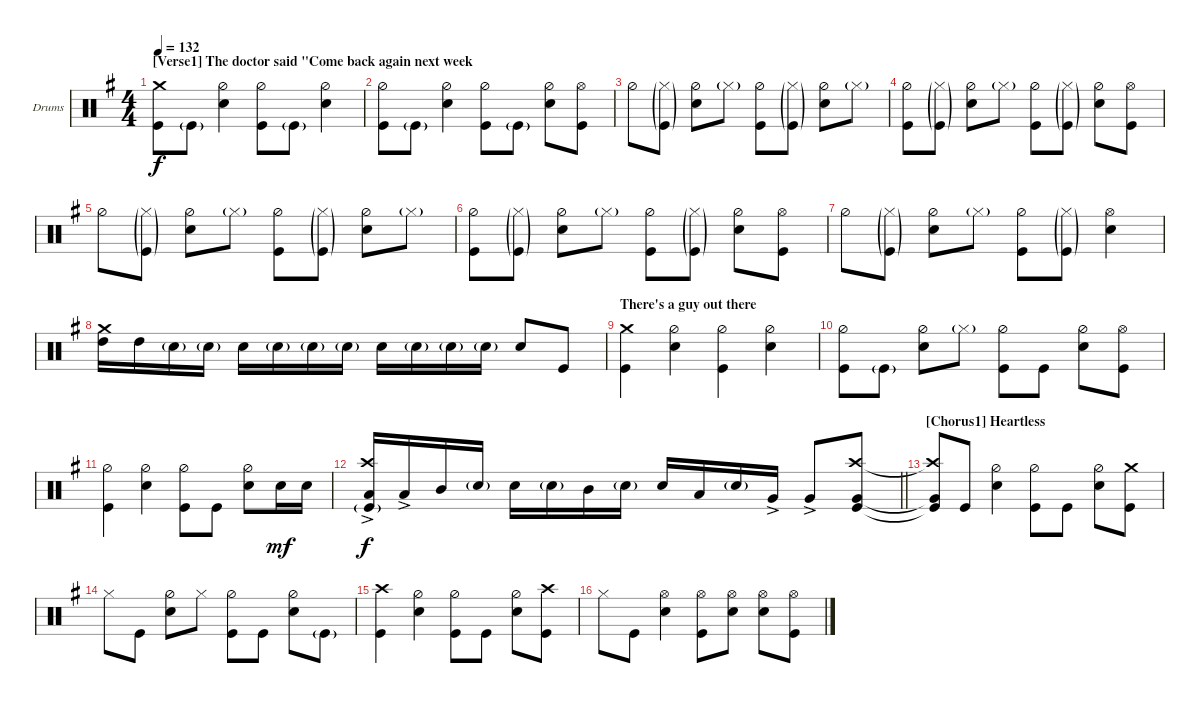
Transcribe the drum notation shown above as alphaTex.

\bracketExtendMode groupsimilarinstruments
\firstSystemTrackNameOrientation horizontal
\otherSystemsTrackNameOrientation horizontal
\track ("Drumkit" "Drums") {instrument percussion}
\staff {score}
\articulation defaults
\ts (4 4)
\section ("" "[Verse1] The doctor said \"Come back again next week")
\tempo 132
\clef neutral
\scale
0.333333
\ks g
("Kick (hit)" "Crash medium (hit)").8{dy f} "Kick (hit)"{g}.8 ("Hi-Hat (half)" "Snare (hit) 2").4 ("Hi-Hat (half)" "Kick (hit)").8 "Kick (hit)"{g}.8 ("Hi-Hat (half)" "Snare (hit) 2").4 |
\scale
0.333333 ("Hi-Hat (half)" "Kick (hit)").8 "Kick (hit)"{g}.8 ("Hi-Hat (half)" "Snare (hit) 2").4 ("Hi-Hat (half)" "Kick (hit)").8 "Kick (hit)"{g}.8 ("Hi-Hat (half)" "Snare (hit) 2").8 ("Kick (hit)" "Hi-Hat (open)").8 |
\scale
0.333333 "Hi-Hat (half)".8 ("Kick (hit)"{g} "Hi-Hat (closed)"{g}).8 ("Hi-Hat (half)" "Snare (hit) 2").8 "Hi-Hat (closed)"{g}.8 ("Hi-Hat (half)" "Kick (hit)").8 ("Kick (hit)"{g} "Hi-Hat (closed)"{g}).8 ("Hi-Hat (half)" "Snare (hit) 2").8 "Hi-Hat (closed)"{g}.8 |
\scale
0.333333 ("Hi-Hat (half)" "Kick (hit)").8 ("Kick (hit)"{g} "Hi-Hat (closed)"{g}).8 ("Hi-Hat (half)" "Snare (hit) 2").8 "Hi-Hat (closed)"{g}.8 ("Hi-Hat (half)" "Kick (hit)").8 ("Kick (hit)"{g} "Hi-Hat (closed)"{g}).8 ("Hi-Hat (half)" "Snare (hit) 2").8 ("Kick (hit)" "Hi-Hat (open)").8 |
\scale
0.333333 "Hi-Hat (half)".8 ("Kick (hit)"{g} "Hi-Hat (closed)"{g}).8 ("Hi-Hat (half)" "Snare (hit) 2").8 "Hi-Hat (closed)"{g}.8 ("Hi-Hat (half)" "Kick (hit)").8 ("Kick (hit)"{g} "Hi-Hat (closed)"{g}).8 ("Hi-Hat (half)" "Snare (hit) 2").8 "Hi-Hat (closed)"{g}.8 |
\scale
0.333333 ("Hi-Hat (half)" "Kick (hit)").8 ("Kick (hit)"{g} "Hi-Hat (closed)"{g}).8 ("Hi-Hat (half)" "Snare (hit) 2").8 "Hi-Hat (closed)"{g}.8 ("Hi-Hat (half)" "Kick (hit)").8 ("Kick (hit)"{g} "Hi-Hat (closed)"{g}).8 ("Hi-Hat (half)" "Snare (hit) 2").8 ("Kick (hit)" "Hi-Hat (open)").8 |
\scale
0.333333 "Hi-Hat (half)".8 ("Kick (hit)"{g} "Hi-Hat (closed)"{g}).8 ("Hi-Hat (half)" "Snare (hit) 2").8 "Hi-Hat (closed)"{g}.8 ("Hi-Hat (half)" "Kick (hit)").8 ("Kick (hit)"{g} "Hi-Hat (closed)"{g}).8 ("Hi-Hat (open)" "Snare (hit) 2").4 |
\scale
0.333333 ("High Tom (hit)" "Crash medium (hit)").16 "High Tom (hit)".16 "Snare (hit) 2"{g}.16 "Snare (hit) 2"{g}.16 "Snare (hit) 2".16 "Snare (hit) 2"{g}.16 "Snare (hit) 2"{g}.16 "Snare (hit) 2"{g}.16 "Snare (hit) 2".16 "Snare (hit) 2"{g}.16 "Snare (hit) 2"{g}.16 "Snare (hit) 2"{g}.16 "Snare (hit) 2".8 "Kick (hit)".8 |
\section ("" "There's a guy out there")
\scale
0.333333 ("Kick (hit)" "Crash medium (hit)").4 ("Hi-Hat (half)" "Snare (hit) 2").4 ("Hi-Hat (half)" "Kick (hit)").4 ("Hi-Hat (half)" "Snare (hit) 2").4 |
\scale
0.333333 ("Hi-Hat (half)" "Kick (hit)").8 "Kick (hit)"{g}.8 ("Hi-Hat (half)" "Snare (hit) 2").8 "Hi-Hat (closed)"{g}.8 ("Hi-Hat (half)" "Kick (hit)").8 "Kick (hit)".8 ("Hi-Hat (half)" "Snare (hit) 2").8 ("Kick (hit)" "Hi-Hat (open)").8 |
\scale
0.333333 ("Hi-Hat (half)" "Kick (hit)").4 ("Hi-Hat (half)" "Snare (hit) 2").4 ("Hi-Hat (half)" "Kick (hit)").8 "Kick (hit)".8 ("Hi-Hat (half)" "Snare (hit) 2").8 "Snare (hit) 2".16{dy mf} "Snare (hit) 2".16 |
\scale
0.333333
\barLineRight lightlight
("Kick (hit)"{g} "Crash high (hit)" "Low Tom (hit)"{ac}).16{dy f} "Low Tom (hit)"{ac}.16 "Mid Tom (hit)".16 "Snare (hit) 2"{g}.16 "Snare (hit) 2".16 "Snare (hit) 2"{g}.16 "Mid Tom (hit)".16 "Snare (hit) 2"{g}.16 "Snare (hit) 2".16 "Low Tom (hit)".16 "Snare (hit) 2"{g}.16 "Very Low Tom (hit)"{ac}.16 "Very Low Tom (hit)"{ac}.8 ("Kick (hit)" "Crash high (hit)" "Very Low Tom (hit)").8 |
\section ("" "[Chorus1] Heartless")
\scale
0.333333 ("Kick (hit)"{t} "Crash high (hit)"{t} "Very Low Tom (hit)"{t}).8 "Kick (hit)".8 ("Hi-Hat (half)" "Snare (hit) 2").4 ("Hi-Hat (half)" "Kick (hit)").8 "Kick (hit)".8 ("Hi-Hat (half)" "Snare (hit) 2").8 ("Kick (hit)" "Crash medium (hit)").8 |
\scale
0.333333 "Hi-Hat (closed)".8 "Kick (hit)".8 ("Hi-Hat (half)" "Snare (hit) 2").8 "Hi-Hat (closed)".8 ("Hi-Hat (half)" "Kick (hit)").8 "Kick (hit)".8 ("Hi-Hat (half)" "Snare (hit) 2").8 "Kick (hit)"{g}.8 |
\scale
0.333333 ("Kick (hit)" "Crash high (hit)").4 ("Hi-Hat (half)" "Snare (hit) 2").4 ("Hi-Hat (half)" "Kick (hit)").8 "Kick (hit)".8 ("Hi-Hat (half)" "Snare (hit) 2").8 ("Kick (hit)" "Crash high (hit)").8 |
\scale
0.333333 "Hi-Hat (closed)".8 "Kick (hit)".8 ("Hi-Hat (open)" "Snare (hit) 2").4 ("Hi-Hat (open)" "Kick (hit)").8 ("Hi-Hat (open)" "Snare (hit) 2").8 ("Hi-Hat (open)" "Snare (hit) 2").8 ("Kick (hit)" "Hi-Hat (open)").8
